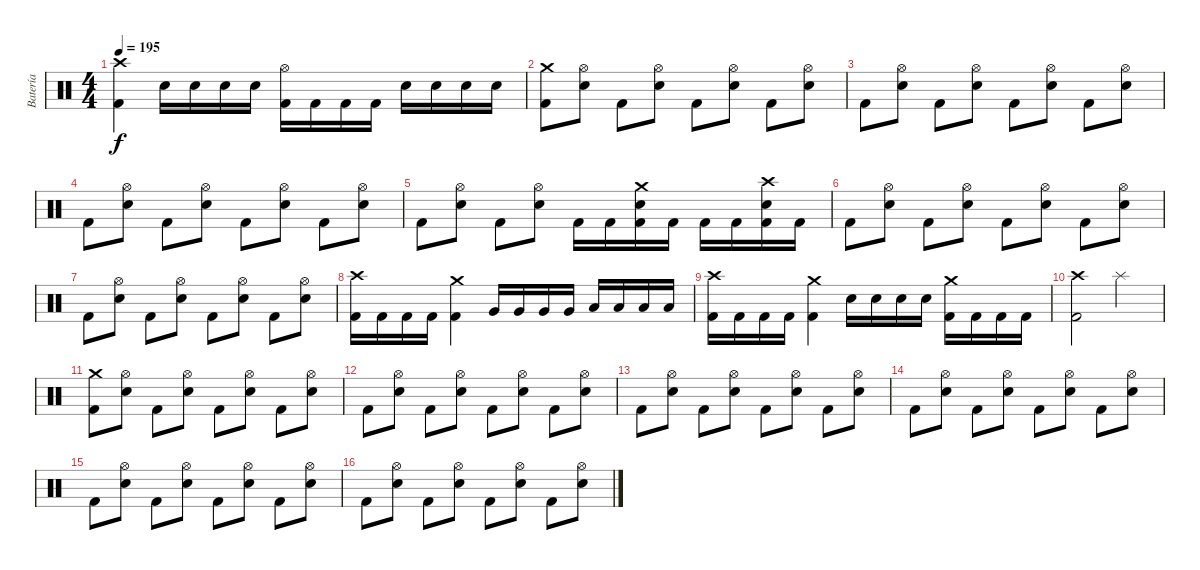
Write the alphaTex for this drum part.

\track ("Batería" "Batería") {instrument percussion}
\staff {score}
\articulation defaults
\ts (4 4)
\tempo 195
\clef neutral
\ks c
("Crash high (hit)" "Kick (hit) 2").4{dy f} "Snare (hit) 2".16 "Snare (hit) 2".16 "Snare (hit) 2".16 "Snare (hit) 2".16 ("Hi-Hat (open)" "Kick (hit) 2").16 "Kick (hit) 2".16 "Kick (hit) 2".16 "Kick (hit) 2".16 "Snare (hit) 2".16 "Snare (hit) 2".16 "Snare (hit) 2".16 "Snare (hit) 2".16 |
("Crash medium (hit)" "Kick (hit) 2").8 ("Hi-Hat (open)" "Snare (hit) 2").8 "Kick (hit) 2".8 ("Hi-Hat (open)" "Snare (hit) 2").8 "Kick (hit) 2".8 ("Hi-Hat (open)" "Snare (hit) 2").8 "Kick (hit) 2".8 ("Hi-Hat (open)" "Snare (hit) 2").8 |
"Kick (hit) 2".8 ("Hi-Hat (open)" "Snare (hit) 2").8 "Kick (hit) 2".8 ("Hi-Hat (open)" "Snare (hit) 2").8 "Kick (hit) 2".8 ("Hi-Hat (open)" "Snare (hit) 2").8 "Kick (hit) 2".8 ("Hi-Hat (open)" "Snare (hit) 2").8 |
"Kick (hit) 2".8 ("Hi-Hat (open)" "Snare (hit) 2").8 "Kick (hit) 2".8 ("Hi-Hat (open)" "Snare (hit) 2").8 "Kick (hit) 2".8 ("Hi-Hat (open)" "Snare (hit) 2").8 "Kick (hit) 2".8 ("Hi-Hat (open)" "Snare (hit) 2").8 |
"Kick (hit) 2".8 ("Hi-Hat (open)" "Snare (hit) 2").8 "Kick (hit) 2".8 ("Hi-Hat (open)" "Snare (hit) 2").8 "Kick (hit) 2".16 "Kick (hit) 2".16 ("Crash medium (hit)" "Snare (hit) 2" "Kick (hit) 2").16 "Kick (hit) 2".16 "Kick (hit) 2".16 "Kick (hit) 2".16 ("Crash high (hit)" "Snare (hit) 2" "Kick (hit) 2").16 "Kick (hit) 2".16 |
"Kick (hit) 2".8 ("Hi-Hat (open)" "Snare (hit) 2").8 "Kick (hit) 2".8 ("Hi-Hat (open)" "Snare (hit) 2").8 "Kick (hit) 2".8 ("Hi-Hat (open)" "Snare (hit) 2").8 "Kick (hit) 2".8 ("Hi-Hat (open)" "Snare (hit) 2").8 |
"Kick (hit) 2".8 ("Hi-Hat (open)" "Snare (hit) 2").8 "Kick (hit) 2".8 ("Hi-Hat (open)" "Snare (hit) 2").8 "Kick (hit) 2".8 ("Hi-Hat (open)" "Snare (hit) 2").8 "Kick (hit) 2".8 ("Hi-Hat (open)" "Snare (hit) 2").8 |
("Crash high (hit)" "Kick (hit) 2").16 "Kick (hit) 2".16 "Kick (hit) 2".16 "Kick (hit) 2".16 ("Crash medium (hit)" "Kick (hit) 2").4 "Very Low Tom (hit)".16 "Very Low Tom (hit)".16 "Very Low Tom (hit)".16 "Very Low Tom (hit)".16 "Low Floor Tom (hit)".16 "Low Floor Tom (hit)".16 "Low Floor Tom (hit)".16 "Low Floor Tom (hit)".16 |
("Crash high (hit)" "Kick (hit) 2").16 "Kick (hit) 2".16 "Kick (hit) 2".16 "Kick (hit) 2".16 ("Crash medium (hit)" "Kick (hit) 2").4 "Snare (hit) 2".16 "Snare (hit) 2".16 "Snare (hit) 2".16 "Snare (hit) 2".16 ("Crash medium (hit)" "Kick (hit) 2").16 "Kick (hit) 2".16 "Kick (hit) 2".16 "Kick (hit) 2".16 |
("Crash high (hit)"{x} "Kick (hit) 2").2 "Splash (hit)".2 |
("Crash medium (hit)" "Kick (hit) 2").8 ("Hi-Hat (open)" "Snare (hit) 2").8 "Kick (hit) 2".8 ("Hi-Hat (open)" "Snare (hit) 2").8 "Kick (hit) 2".8 ("Hi-Hat (open)" "Snare (hit) 2").8 "Kick (hit) 2".8 ("Hi-Hat (open)" "Snare (hit) 2").8 |
"Kick (hit) 2".8 ("Hi-Hat (open)" "Snare (hit) 2").8 "Kick (hit) 2".8 ("Hi-Hat (open)" "Snare (hit) 2").8 "Kick (hit) 2".8 ("Hi-Hat (open)" "Snare (hit) 2").8 "Kick (hit) 2".8 ("Hi-Hat (open)" "Snare (hit) 2").8 |
"Kick (hit) 2".8 ("Hi-Hat (open)" "Snare (hit) 2").8 "Kick (hit) 2".8 ("Hi-Hat (open)" "Snare (hit) 2").8 "Kick (hit) 2".8 ("Hi-Hat (open)" "Snare (hit) 2").8 "Kick (hit) 2".8 ("Hi-Hat (open)" "Snare (hit) 2").8 |
"Kick (hit) 2".8 ("Hi-Hat (open)" "Snare (hit) 2").8 "Kick (hit) 2".8 ("Hi-Hat (open)" "Snare (hit) 2").8 "Kick (hit) 2".8 ("Hi-Hat (open)" "Snare (hit) 2").8 "Kick (hit) 2".8 ("Hi-Hat (open)" "Snare (hit) 2").8 |
"Kick (hit) 2".8 ("Hi-Hat (open)" "Snare (hit) 2").8 "Kick (hit) 2".8 ("Hi-Hat (open)" "Snare (hit) 2").8 "Kick (hit) 2".8 ("Hi-Hat (open)" "Snare (hit) 2").8 "Kick (hit) 2".8 ("Hi-Hat (open)" "Snare (hit) 2").8 |
"Kick (hit) 2".8 ("Hi-Hat (open)" "Snare (hit) 2").8 "Kick (hit) 2".8 ("Hi-Hat (open)" "Snare (hit) 2").8 "Kick (hit) 2".8 ("Hi-Hat (open)" "Snare (hit) 2").8 "Kick (hit) 2".8 ("Hi-Hat (open)" "Snare (hit) 2").8
